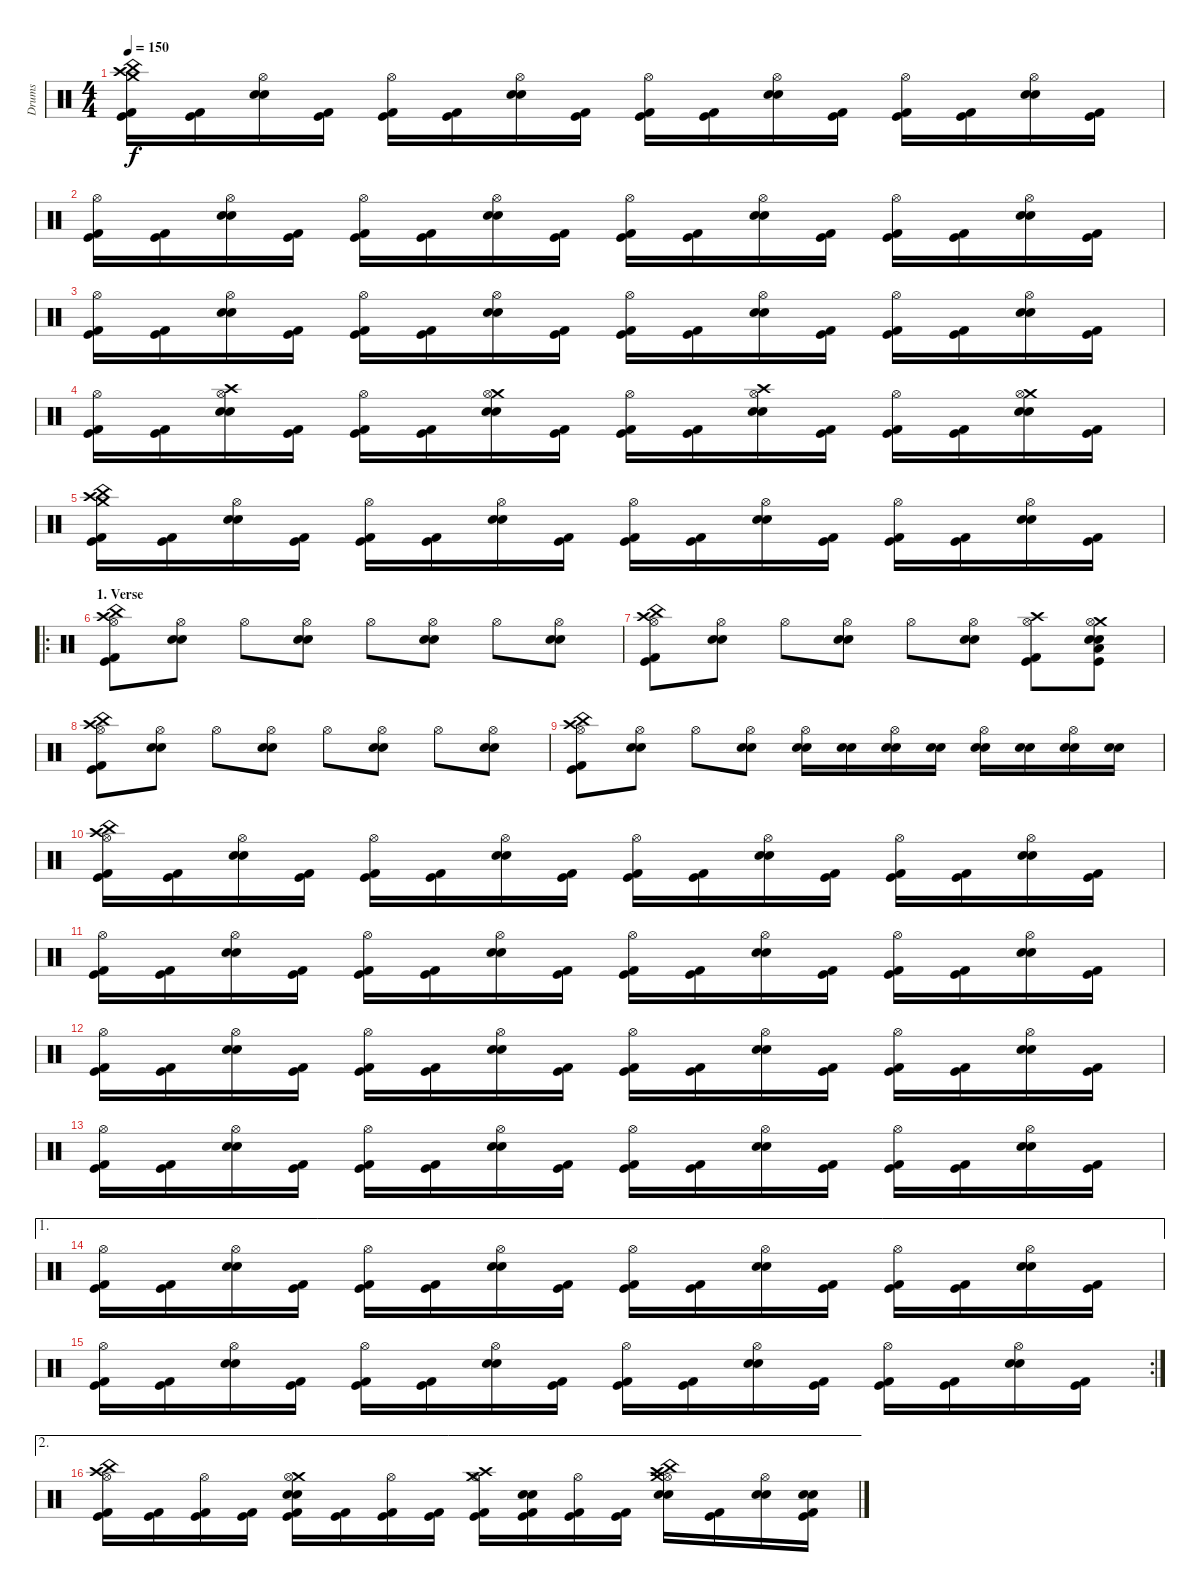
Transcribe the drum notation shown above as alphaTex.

\track ("Drums" "Drums") {instrument percussion}
\staff {score}
\articulation defaults
\ts (4 4)
\tempo 150
\clef neutral
\ks c
("Crash medium (hit)" "Crash high (hit)" "China (hit)" "Kick (hit) 2" "Kick (hit)").16{dy f} ("Kick (hit) 2" "Kick (hit)").16 ("Hi-Hat (open)" "Snare (hit) 2" "Electric Snare (hit)").16 ("Kick (hit) 2" "Kick (hit)").16 ("Hi-Hat (open)" "Kick (hit) 2" "Kick (hit)").16 ("Kick (hit) 2" "Kick (hit)").16 ("Hi-Hat (open)" "Snare (hit) 2" "Electric Snare (hit)").16 ("Kick (hit) 2" "Kick (hit)").16 ("Hi-Hat (open)" "Kick (hit) 2" "Kick (hit)").16 ("Kick (hit) 2" "Kick (hit)").16 ("Hi-Hat (open)" "Snare (hit) 2" "Electric Snare (hit)").16 ("Kick (hit) 2" "Kick (hit)").16 ("Hi-Hat (open)" "Kick (hit) 2" "Kick (hit)").16 ("Kick (hit) 2" "Kick (hit)").16 ("Hi-Hat (open)" "Snare (hit) 2" "Electric Snare (hit)").16 ("Kick (hit) 2" "Kick (hit)").16 |
("Hi-Hat (open)" "Kick (hit) 2" "Kick (hit)").16 ("Kick (hit) 2" "Kick (hit)").16 ("Hi-Hat (open)" "Snare (hit) 2" "Electric Snare (hit)").16 ("Kick (hit) 2" "Kick (hit)").16 ("Hi-Hat (open)" "Kick (hit) 2" "Kick (hit)").16 ("Kick (hit) 2" "Kick (hit)").16 ("Hi-Hat (open)" "Snare (hit) 2" "Electric Snare (hit)").16 ("Kick (hit) 2" "Kick (hit)").16 ("Hi-Hat (open)" "Kick (hit) 2" "Kick (hit)").16 ("Kick (hit) 2" "Kick (hit)").16 ("Hi-Hat (open)" "Snare (hit) 2" "Electric Snare (hit)").16 ("Kick (hit) 2" "Kick (hit)").16 ("Hi-Hat (open)" "Kick (hit) 2" "Kick (hit)").16 ("Kick (hit) 2" "Kick (hit)").16 ("Hi-Hat (open)" "Snare (hit) 2" "Electric Snare (hit)").16 ("Kick (hit) 2" "Kick (hit)").16 |
("Hi-Hat (open)" "Kick (hit) 2" "Kick (hit)").16 ("Kick (hit) 2" "Kick (hit)").16 ("Hi-Hat (open)" "Snare (hit) 2" "Electric Snare (hit)").16 ("Kick (hit) 2" "Kick (hit)").16 ("Hi-Hat (open)" "Kick (hit) 2" "Kick (hit)").16 ("Kick (hit) 2" "Kick (hit)").16 ("Hi-Hat (open)" "Snare (hit) 2" "Electric Snare (hit)").16 ("Kick (hit) 2" "Kick (hit)").16 ("Hi-Hat (open)" "Kick (hit) 2" "Kick (hit)").16 ("Kick (hit) 2" "Kick (hit)").16 ("Hi-Hat (open)" "Snare (hit) 2" "Electric Snare (hit)").16 ("Kick (hit) 2" "Kick (hit)").16 ("Hi-Hat (open)" "Kick (hit) 2" "Kick (hit)").16 ("Kick (hit) 2" "Kick (hit)").16 ("Hi-Hat (open)" "Snare (hit) 2" "Electric Snare (hit)").16 ("Kick (hit) 2" "Kick (hit)").16 |
("Hi-Hat (open)" "Kick (hit) 2" "Kick (hit)").16 ("Kick (hit) 2" "Kick (hit)").16 ("Crash high (hit)" "Hi-Hat (open)" "Snare (hit) 2" "Electric Snare (hit)").16 ("Kick (hit) 2" "Kick (hit)").16 ("Hi-Hat (open)" "Kick (hit) 2" "Kick (hit)").16 ("Kick (hit) 2" "Kick (hit)").16 ("Crash medium (hit)" "Hi-Hat (open)" "Snare (hit) 2" "Electric Snare (hit)").16 ("Kick (hit) 2" "Kick (hit)").16 ("Hi-Hat (open)" "Kick (hit) 2" "Kick (hit)").16 ("Kick (hit) 2" "Kick (hit)").16 ("Crash high (hit)" "Hi-Hat (open)" "Snare (hit) 2" "Electric Snare (hit)").16 ("Kick (hit) 2" "Kick (hit)").16 ("Hi-Hat (open)" "Kick (hit) 2" "Kick (hit)").16 ("Kick (hit) 2" "Kick (hit)").16 ("Crash medium (hit)" "Hi-Hat (open)" "Snare (hit) 2" "Electric Snare (hit)").16 ("Kick (hit) 2" "Kick (hit)").16 |
("Crash medium (hit)" "Crash high (hit)" "China (hit)" "Kick (hit) 2" "Kick (hit)").16 ("Kick (hit) 2" "Kick (hit)").16 ("Hi-Hat (open)" "Snare (hit) 2" "Electric Snare (hit)").16 ("Kick (hit) 2" "Kick (hit)").16 ("Hi-Hat (open)" "Kick (hit) 2" "Kick (hit)").16 ("Kick (hit) 2" "Kick (hit)").16 ("Hi-Hat (open)" "Snare (hit) 2" "Electric Snare (hit)").16 ("Kick (hit) 2" "Kick (hit)").16 ("Hi-Hat (open)" "Kick (hit) 2" "Kick (hit)").16 ("Kick (hit) 2" "Kick (hit)").16 ("Hi-Hat (open)" "Snare (hit) 2" "Electric Snare (hit)").16 ("Kick (hit) 2" "Kick (hit)").16 ("Hi-Hat (open)" "Kick (hit) 2" "Kick (hit)").16 ("Kick (hit) 2" "Kick (hit)").16 ("Hi-Hat (open)" "Snare (hit) 2" "Electric Snare (hit)").16 ("Kick (hit) 2" "Kick (hit)").16 |
\ro
\section ("" "1. Verse")
("Crash high (hit)" "Hi-Hat (open)" "China (hit)" "Kick (hit) 2" "Kick (hit)").8 ("Hi-Hat (open)" "Electric Snare (hit)" "Snare (hit) 2").8 "Hi-Hat (open)".8 ("Hi-Hat (open)" "Electric Snare (hit)" "Snare (hit) 2").8 "Hi-Hat (open)".8 ("Hi-Hat (open)" "Electric Snare (hit)" "Snare (hit) 2").8 "Hi-Hat (open)".8 ("Hi-Hat (open)" "Electric Snare (hit)" "Snare (hit) 2").8 |
("Crash high (hit)" "Hi-Hat (open)" "China (hit)" "Kick (hit) 2" "Kick (hit)").8 ("Hi-Hat (open)" "Electric Snare (hit)" "Snare (hit) 2").8 "Hi-Hat (open)".8 ("Hi-Hat (open)" "Electric Snare (hit)" "Snare (hit) 2").8 "Hi-Hat (open)".8 ("Hi-Hat (open)" "Electric Snare (hit)" "Snare (hit) 2").8 ("Crash high (hit)" "Hi-Hat (open)" "Kick (hit) 2" "Kick (hit)").8 ("Crash medium (hit)" "Hi-Hat (open)" "Electric Snare (hit)" "Snare (hit) 2" "Low Tom (hit)" "Kick (hit)").8 |
("Crash high (hit)" "Hi-Hat (open)" "China (hit)" "Kick (hit) 2" "Kick (hit)").8 ("Hi-Hat (open)" "Electric Snare (hit)" "Snare (hit) 2").8 "Hi-Hat (open)".8 ("Hi-Hat (open)" "Electric Snare (hit)" "Snare (hit) 2").8 "Hi-Hat (open)".8 ("Hi-Hat (open)" "Electric Snare (hit)" "Snare (hit) 2").8 "Hi-Hat (open)".8 ("Hi-Hat (open)" "Electric Snare (hit)" "Snare (hit) 2").8 |
("Crash high (hit)" "Hi-Hat (open)" "China (hit)" "Kick (hit) 2" "Kick (hit)").8 ("Hi-Hat (open)" "Electric Snare (hit)" "Snare (hit) 2").8 "Hi-Hat (open)".8 ("Hi-Hat (open)" "Electric Snare (hit)" "Snare (hit) 2").8 ("Hi-Hat (open)" "Snare (hit) 2" "Electric Snare (hit)").16 ("Electric Snare (hit)" "Snare (hit) 2").16 ("Hi-Hat (open)" "Electric Snare (hit)" "Snare (hit) 2").16 ("Electric Snare (hit)" "Snare (hit) 2").16 ("Hi-Hat (open)" "Electric Snare (hit)" "Snare (hit) 2").16 ("Electric Snare (hit)" "Snare (hit) 2").16 ("Hi-Hat (open)" "Electric Snare (hit)" "Snare (hit) 2").16 ("Electric Snare (hit)" "Snare (hit) 2").16 |
("Crash high (hit)" "Hi-Hat (open)" "China (hit)" "Kick (hit) 2" "Kick (hit)").16 ("Kick (hit) 2" "Kick (hit)").16 ("Hi-Hat (open)" "Snare (hit) 2" "Electric Snare (hit)").16 ("Kick (hit) 2" "Kick (hit)").16 ("Hi-Hat (open)" "Kick (hit) 2" "Kick (hit)").16 ("Kick (hit) 2" "Kick (hit)").16 ("Hi-Hat (open)" "Snare (hit) 2" "Electric Snare (hit)").16 ("Kick (hit) 2" "Kick (hit)").16 ("Hi-Hat (open)" "Kick (hit) 2" "Kick (hit)").16 ("Kick (hit) 2" "Kick (hit)").16 ("Hi-Hat (open)" "Snare (hit) 2" "Electric Snare (hit)").16 ("Kick (hit) 2" "Kick (hit)").16 ("Hi-Hat (open)" "Kick (hit) 2" "Kick (hit)").16 ("Kick (hit) 2" "Kick (hit)").16 ("Hi-Hat (open)" "Snare (hit) 2" "Electric Snare (hit)").16 ("Kick (hit) 2" "Kick (hit)").16 |
("Hi-Hat (open)" "Kick (hit) 2" "Kick (hit)").16 ("Kick (hit) 2" "Kick (hit)").16 ("Hi-Hat (open)" "Snare (hit) 2" "Electric Snare (hit)").16 ("Kick (hit) 2" "Kick (hit)").16 ("Hi-Hat (open)" "Kick (hit) 2" "Kick (hit)").16 ("Kick (hit) 2" "Kick (hit)").16 ("Hi-Hat (open)" "Snare (hit) 2" "Electric Snare (hit)").16 ("Kick (hit) 2" "Kick (hit)").16 ("Hi-Hat (open)" "Kick (hit) 2" "Kick (hit)").16 ("Kick (hit) 2" "Kick (hit)").16 ("Hi-Hat (open)" "Snare (hit) 2" "Electric Snare (hit)").16 ("Kick (hit) 2" "Kick (hit)").16 ("Hi-Hat (open)" "Kick (hit) 2" "Kick (hit)").16 ("Kick (hit) 2" "Kick (hit)").16 ("Hi-Hat (open)" "Snare (hit) 2" "Electric Snare (hit)").16 ("Kick (hit) 2" "Kick (hit)").16 |
("Hi-Hat (open)" "Kick (hit) 2" "Kick (hit)").16 ("Kick (hit) 2" "Kick (hit)").16 ("Hi-Hat (open)" "Snare (hit) 2" "Electric Snare (hit)").16 ("Kick (hit) 2" "Kick (hit)").16 ("Hi-Hat (open)" "Kick (hit) 2" "Kick (hit)").16 ("Kick (hit) 2" "Kick (hit)").16 ("Hi-Hat (open)" "Snare (hit) 2" "Electric Snare (hit)").16 ("Kick (hit) 2" "Kick (hit)").16 ("Hi-Hat (open)" "Kick (hit) 2" "Kick (hit)").16 ("Kick (hit) 2" "Kick (hit)").16 ("Hi-Hat (open)" "Snare (hit) 2" "Electric Snare (hit)").16 ("Kick (hit) 2" "Kick (hit)").16 ("Hi-Hat (open)" "Kick (hit) 2" "Kick (hit)").16 ("Kick (hit) 2" "Kick (hit)").16 ("Hi-Hat (open)" "Snare (hit) 2" "Electric Snare (hit)").16 ("Kick (hit) 2" "Kick (hit)").16 |
("Hi-Hat (open)" "Kick (hit) 2" "Kick (hit)").16 ("Kick (hit) 2" "Kick (hit)").16 ("Hi-Hat (open)" "Snare (hit) 2" "Electric Snare (hit)").16 ("Kick (hit) 2" "Kick (hit)").16 ("Hi-Hat (open)" "Kick (hit) 2" "Kick (hit)").16 ("Kick (hit) 2" "Kick (hit)").16 ("Hi-Hat (open)" "Snare (hit) 2" "Electric Snare (hit)").16 ("Kick (hit) 2" "Kick (hit)").16 ("Hi-Hat (open)" "Kick (hit) 2" "Kick (hit)").16 ("Kick (hit) 2" "Kick (hit)").16 ("Hi-Hat (open)" "Snare (hit) 2" "Electric Snare (hit)").16 ("Kick (hit) 2" "Kick (hit)").16 ("Hi-Hat (open)" "Kick (hit) 2" "Kick (hit)").16 ("Kick (hit) 2" "Kick (hit)").16 ("Hi-Hat (open)" "Snare (hit) 2" "Electric Snare (hit)").16 ("Kick (hit) 2" "Kick (hit)").16 |
\ae 1
("Hi-Hat (open)" "Kick (hit) 2" "Kick (hit)").16 ("Kick (hit) 2" "Kick (hit)").16 ("Hi-Hat (open)" "Snare (hit) 2" "Electric Snare (hit)").16 ("Kick (hit) 2" "Kick (hit)").16 ("Hi-Hat (open)" "Kick (hit) 2" "Kick (hit)").16 ("Kick (hit) 2" "Kick (hit)").16 ("Hi-Hat (open)" "Snare (hit) 2" "Electric Snare (hit)").16 ("Kick (hit) 2" "Kick (hit)").16 ("Hi-Hat (open)" "Kick (hit) 2" "Kick (hit)").16 ("Kick (hit) 2" "Kick (hit)").16 ("Hi-Hat (open)" "Snare (hit) 2" "Electric Snare (hit)").16 ("Kick (hit) 2" "Kick (hit)").16 ("Hi-Hat (open)" "Kick (hit) 2" "Kick (hit)").16 ("Kick (hit) 2" "Kick (hit)").16 ("Hi-Hat (open)" "Snare (hit) 2" "Electric Snare (hit)").16 ("Kick (hit) 2" "Kick (hit)").16 |
\rc 2
("Hi-Hat (open)" "Kick (hit) 2" "Kick (hit)").16 ("Kick (hit) 2" "Kick (hit)").16 ("Hi-Hat (open)" "Snare (hit) 2" "Electric Snare (hit)").16 ("Kick (hit) 2" "Kick (hit)").16 ("Hi-Hat (open)" "Kick (hit) 2" "Kick (hit)").16 ("Kick (hit) 2" "Kick (hit)").16 ("Hi-Hat (open)" "Snare (hit) 2" "Electric Snare (hit)").16 ("Kick (hit) 2" "Kick (hit)").16 ("Hi-Hat (open)" "Kick (hit) 2" "Kick (hit)").16 ("Kick (hit) 2" "Kick (hit)").16 ("Hi-Hat (open)" "Snare (hit) 2" "Electric Snare (hit)").16 ("Kick (hit) 2" "Kick (hit)").16 ("Hi-Hat (open)" "Kick (hit) 2" "Kick (hit)").16 ("Kick (hit) 2" "Kick (hit)").16 ("Hi-Hat (open)" "Snare (hit) 2" "Electric Snare (hit)").16 ("Kick (hit) 2" "Kick (hit)").16 |
\ae 2
("Crash high (hit)" "Hi-Hat (open)" "China (hit)" "Kick (hit) 2" "Kick (hit)").16 ("Kick (hit) 2" "Kick (hit)").16 ("Hi-Hat (open)" "Kick (hit) 2" "Kick (hit)").16 ("Kick (hit) 2" "Kick (hit)").16 ("Crash medium (hit)" "Hi-Hat (open)" "Kick (hit) 2" "Electric Snare (hit)" "Snare (hit) 2" "Kick (hit)").16 ("Kick (hit) 2" "Kick (hit)").16 ("Hi-Hat (open)" "Kick (hit) 2" "Kick (hit)").16 ("Kick (hit) 2" "Kick (hit)").16 ("Crash medium (hit)" "Hi-Hat (open)" "Crash high (hit)" "Kick (hit) 2" "Kick (hit)").16 ("Electric Snare (hit)" "Snare (hit) 2" "Kick (hit) 2" "Kick (hit)").16 ("Hi-Hat (open)" "Kick (hit) 2" "Kick (hit)").16 ("Kick (hit) 2" "Kick (hit)").16 ("Crash high (hit)" "Hi-Hat (open)" "Electric Snare (hit)" "Snare (hit) 2" "China (hit)" "Crash medium (hit)").16 ("Kick (hit) 2" "Kick (hit)").16 ("Hi-Hat (open)" "Snare (hit) 2" "Electric Snare (hit)").16 ("Snare (hit) 2" "Electric Snare (hit)" "Kick (hit) 2" "Kick (hit)").16
